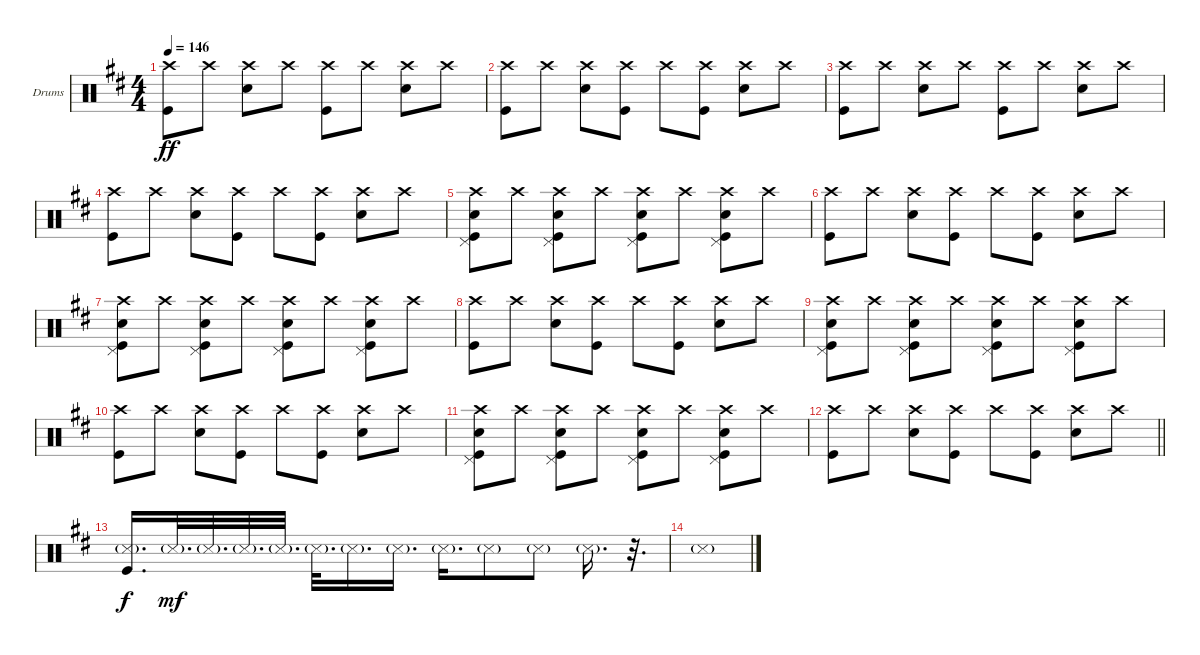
\bracketExtendMode groupsimilarinstruments
\firstSystemTrackNameOrientation horizontal
\otherSystemsTrackNameOrientation horizontal
\track ("Fabrizio Moretti" "Drums") {instrument percussion}
\staff {score}
\articulation defaults
\ts (4 4)
\tempo 146
\clef neutral
\ks d
("Crash high (hit)" "Kick (hit)").8{dy ff} "Crash high (hit)".8 ("Crash high (hit)" "Snare (hit) 2").8 "Crash high (hit)".8 ("Crash high (hit)" "Kick (hit)").8 "Crash high (hit)".8 ("Crash high (hit)" "Snare (hit) 2").8 "Crash high (hit)".8 |
("Crash high (hit)" "Kick (hit)").8 "Crash high (hit)".8 ("Crash high (hit)" "Snare (hit) 2").8 ("Crash high (hit)" "Kick (hit)").8 "Crash high (hit)".8 ("Crash high (hit)" "Kick (hit)").8 ("Crash high (hit)" "Snare (hit) 2").8 "Crash high (hit)".8 |
("Crash high (hit)" "Kick (hit)").8 "Crash high (hit)".8 ("Crash high (hit)" "Snare (hit) 2").8 "Crash high (hit)".8 ("Crash high (hit)" "Kick (hit)").8 "Crash high (hit)".8 ("Crash high (hit)" "Snare (hit) 2").8 "Crash high (hit)".8 |
("Crash high (hit)" "Kick (hit)").8 "Crash high (hit)".8 ("Crash high (hit)" "Snare (hit) 2").8 ("Crash high (hit)" "Kick (hit)").8 "Crash high (hit)".8 ("Crash high (hit)" "Kick (hit)").8 ("Crash high (hit)" "Snare (hit) 2").8 "Crash high (hit)".8 |
("Crash high (hit)" "Pedal Hi-Hat (hit)" "Snare (hit) 2" "Kick (hit)").8 "Crash high (hit)".8 ("Crash high (hit)" "Pedal Hi-Hat (hit)" "Snare (hit) 2" "Kick (hit)").8 "Crash high (hit)".8 ("Crash high (hit)" "Pedal Hi-Hat (hit)" "Snare (hit) 2" "Kick (hit)").8 "Crash high (hit)".8 ("Crash high (hit)" "Pedal Hi-Hat (hit)" "Snare (hit) 2" "Kick (hit)").8 "Crash high (hit)".8 |
("Crash high (hit)" "Kick (hit)").8 "Crash high (hit)".8 ("Crash high (hit)" "Snare (hit) 2").8 ("Crash high (hit)" "Kick (hit)").8 "Crash high (hit)".8 ("Crash high (hit)" "Kick (hit)").8 ("Crash high (hit)" "Snare (hit) 2").8 "Crash high (hit)".8 |
("Crash high (hit)" "Pedal Hi-Hat (hit)" "Snare (hit) 2" "Kick (hit)").8 "Crash high (hit)".8 ("Crash high (hit)" "Pedal Hi-Hat (hit)" "Snare (hit) 2" "Kick (hit)").8 "Crash high (hit)".8 ("Crash high (hit)" "Pedal Hi-Hat (hit)" "Snare (hit) 2" "Kick (hit)").8 "Crash high (hit)".8 ("Crash high (hit)" "Pedal Hi-Hat (hit)" "Snare (hit) 2" "Kick (hit)").8 "Crash high (hit)".8 |
("Crash high (hit)" "Kick (hit)").8 "Crash high (hit)".8 ("Crash high (hit)" "Snare (hit) 2").8 ("Crash high (hit)" "Kick (hit)").8 "Crash high (hit)".8 ("Crash high (hit)" "Kick (hit)").8 ("Crash high (hit)" "Snare (hit) 2").8 "Crash high (hit)".8 |
("Crash high (hit)" "Pedal Hi-Hat (hit)" "Snare (hit) 2" "Kick (hit)").8 "Crash high (hit)".8 ("Crash high (hit)" "Pedal Hi-Hat (hit)" "Snare (hit) 2" "Kick (hit)").8 "Crash high (hit)".8 ("Crash high (hit)" "Pedal Hi-Hat (hit)" "Snare (hit) 2" "Kick (hit)").8 "Crash high (hit)".8 ("Crash high (hit)" "Pedal Hi-Hat (hit)" "Snare (hit) 2" "Kick (hit)").8 "Crash high (hit)".8 |
("Crash high (hit)" "Kick (hit)").8 "Crash high (hit)".8 ("Crash high (hit)" "Snare (hit) 2").8 ("Crash high (hit)" "Kick (hit)").8 "Crash high (hit)".8 ("Crash high (hit)" "Kick (hit)").8 ("Crash high (hit)" "Snare (hit) 2").8 "Crash high (hit)".8 |
("Crash high (hit)" "Pedal Hi-Hat (hit)" "Snare (hit) 2" "Kick (hit)").8 "Crash high (hit)".8 ("Crash high (hit)" "Pedal Hi-Hat (hit)" "Snare (hit) 2" "Kick (hit)").8 "Crash high (hit)".8 ("Crash high (hit)" "Pedal Hi-Hat (hit)" "Snare (hit) 2" "Kick (hit)").8 "Crash high (hit)".8 ("Crash high (hit)" "Pedal Hi-Hat (hit)" "Snare (hit) 2" "Kick (hit)").8 "Crash high (hit)".8 |
\barLineRight lightlight
("Crash high (hit)" "Kick (hit)").8 "Crash high (hit)".8 ("Crash high (hit)" "Snare (hit) 2").8 ("Crash high (hit)" "Kick (hit)").8 "Crash high (hit)".8 ("Crash high (hit)" "Kick (hit)").8 ("Crash high (hit)" "Snare (hit) 2").8 "Crash high (hit)".8 |
("Snare (side stick) 3"{g} "Kick (hit)").16{d dy f} "Snare (side stick) 3"{g}.32{d dy mf} "Snare (side stick) 3"{g}.32{d} "Snare (side stick) 3"{g}.32{d} "Snare (side stick) 3"{g}.32{d} "Snare (side stick) 3"{g}.32{d} "Snare (side stick) 3"{g}.16{d} "Snare (side stick) 3"{g}.16{d} "Snare (side stick) 3"{g}.16{d} "Snare (side stick) 3"{g}.8 "Snare (side stick) 3"{g}.8 "Snare (side stick) 3"{g}.16{d} r.32{d} |
"Snare (side stick) 3"{g}.1
